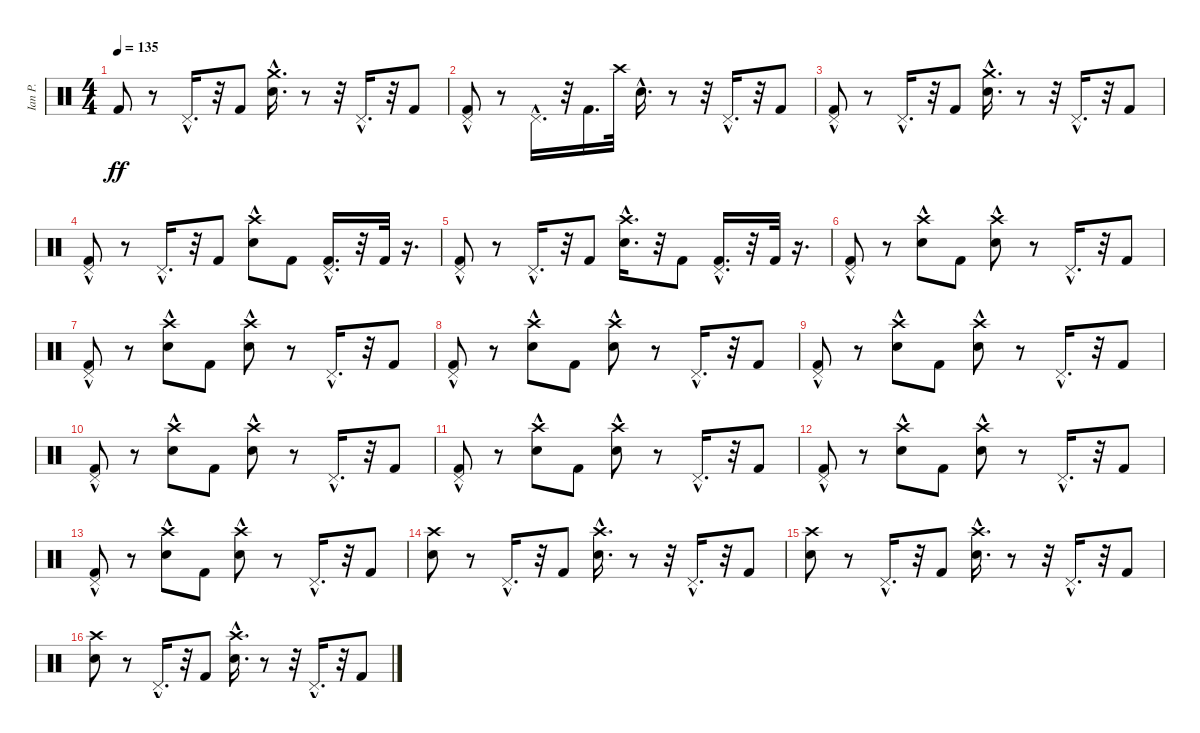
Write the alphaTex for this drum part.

\track ("Ian P." "Ian P.") {instrument percussion}
\staff {score}
\articulation defaults
\ts (4 4)
\tempo 135
\clef neutral
\ks c "Kick (hit) 2".8{dy ff}
r.8 "Pedal Hi-Hat (hit)"{hac}.16{d} r.32 "Kick (hit) 2".8 ("Snare (hit) 2"{hac} "Crash medium (hit)"{hac}).16{d} r.8 r.32 "Pedal Hi-Hat (hit)"{hac}.16{d} r.32 "Kick (hit) 2".8 |
("Kick (hit) 2" "Pedal Hi-Hat (hit)"{hac}).8 r.8 "Pedal Hi-Hat (hit)"{hac}.16{d} r.32 "Kick (hit) 2".16{d} "Crash high (hit)".32 "Snare (hit) 2"{hac}.16{d} r.8 r.32 "Pedal Hi-Hat (hit)"{hac}.16{d} r.32 "Kick (hit) 2".8 |
("Kick (hit) 2" "Pedal Hi-Hat (hit)"{hac}).8 r.8 "Pedal Hi-Hat (hit)"{hac}.16{d} r.32 "Kick (hit) 2".8 ("Snare (hit) 2"{hac} "Crash medium (hit)"{hac}).16{d} r.8 r.32 "Pedal Hi-Hat (hit)"{hac}.16{d} r.32 "Kick (hit) 2".8 |
("Kick (hit) 2" "Pedal Hi-Hat (hit)"{hac}).8 r.8 "Pedal Hi-Hat (hit)"{hac}.16{d} r.32 "Kick (hit) 2".8 ("Snare (hit) 2"{hac} "Crash high (hit)").8 "Kick (hit) 2".8 ("Pedal Hi-Hat (hit)"{hac} "Kick (hit) 2").16{d} r.32 "Kick (hit) 2".32 r.16{d} |
("Kick (hit) 2" "Pedal Hi-Hat (hit)"{hac}).8 r.8 "Pedal Hi-Hat (hit)"{hac}.16{d} r.32 "Kick (hit) 2".8 ("Snare (hit) 2"{hac} "Crash high (hit)"{hac}).16{d} r.32 "Kick (hit) 2".8 ("Pedal Hi-Hat (hit)"{hac} "Kick (hit) 2").16{d} r.32 "Kick (hit) 2".32 r.16{d} |
("Kick (hit) 2" "Pedal Hi-Hat (hit)"{hac}).8 r.8 ("Snare (hit) 2"{hac} "Crash high (hit)").8 "Kick (hit) 2".8 ("Snare (hit) 2"{hac} "Crash high (hit)").8 r.8 "Pedal Hi-Hat (hit)"{hac}.16{d} r.32 "Kick (hit) 2".8 |
("Kick (hit) 2" "Pedal Hi-Hat (hit)"{hac}).8 r.8 ("Snare (hit) 2"{hac} "Crash high (hit)").8 "Kick (hit) 2".8 ("Snare (hit) 2"{hac} "Crash high (hit)").8 r.8 "Pedal Hi-Hat (hit)"{hac}.16{d} r.32 "Kick (hit) 2".8 |
("Kick (hit) 2" "Pedal Hi-Hat (hit)"{hac}).8 r.8 ("Snare (hit) 2"{hac} "Crash high (hit)").8 "Kick (hit) 2".8 ("Snare (hit) 2"{hac} "Crash high (hit)").8 r.8 "Pedal Hi-Hat (hit)"{hac}.16{d} r.32 "Kick (hit) 2".8 |
("Kick (hit) 2" "Pedal Hi-Hat (hit)"{hac}).8 r.8 ("Snare (hit) 2"{hac} "Crash high (hit)").8 "Kick (hit) 2".8 ("Snare (hit) 2"{hac} "Crash high (hit)").8 r.8 "Pedal Hi-Hat (hit)"{hac}.16{d} r.32 "Kick (hit) 2".8 |
("Kick (hit) 2" "Pedal Hi-Hat (hit)"{hac}).8 r.8 ("Snare (hit) 2"{hac} "Crash high (hit)").8 "Kick (hit) 2".8 ("Snare (hit) 2"{hac} "Crash high (hit)").8 r.8 "Pedal Hi-Hat (hit)"{hac}.16{d} r.32 "Kick (hit) 2".8 |
("Kick (hit) 2" "Pedal Hi-Hat (hit)"{hac}).8 r.8 ("Snare (hit) 2"{hac} "Crash high (hit)").8 "Kick (hit) 2".8 ("Snare (hit) 2"{hac} "Crash high (hit)").8 r.8 "Pedal Hi-Hat (hit)"{hac}.16{d} r.32 "Kick (hit) 2".8 |
("Kick (hit) 2" "Pedal Hi-Hat (hit)"{hac}).8 r.8 ("Snare (hit) 2"{hac} "Crash high (hit)").8 "Kick (hit) 2".8 ("Snare (hit) 2"{hac} "Crash high (hit)").8 r.8 "Pedal Hi-Hat (hit)"{hac}.16{d} r.32 "Kick (hit) 2".8 |
("Kick (hit) 2" "Pedal Hi-Hat (hit)"{hac}).8 r.8 ("Snare (hit) 2"{hac} "Crash high (hit)").8 "Kick (hit) 2".8 ("Snare (hit) 2"{hac} "Crash high (hit)").8 r.8 "Pedal Hi-Hat (hit)"{hac}.16{d} r.32 "Kick (hit) 2".8 |
("Crash high (hit)" "Snare (hit) 2").8 r.8 "Pedal Hi-Hat (hit)"{hac}.16{d} r.32 "Kick (hit) 2".8 ("Snare (hit) 2"{hac} "Crash high (hit)"{hac}).16{d} r.8 r.32 "Pedal Hi-Hat (hit)"{hac}.16{d} r.32 "Kick (hit) 2".8 |
("Crash high (hit)" "Snare (hit) 2").8 r.8 "Pedal Hi-Hat (hit)"{hac}.16{d} r.32 "Kick (hit) 2".8 ("Snare (hit) 2"{hac} "Crash high (hit)"{hac}).16{d} r.8 r.32 "Pedal Hi-Hat (hit)"{hac}.16{d} r.32 "Kick (hit) 2".8 |
("Crash high (hit)" "Snare (hit) 2").8 r.8 "Pedal Hi-Hat (hit)"{hac}.16{d} r.32 "Kick (hit) 2".8 ("Snare (hit) 2"{hac} "Crash high (hit)"{hac}).16{d} r.8 r.32 "Pedal Hi-Hat (hit)"{hac}.16{d} r.32 "Kick (hit) 2".8
